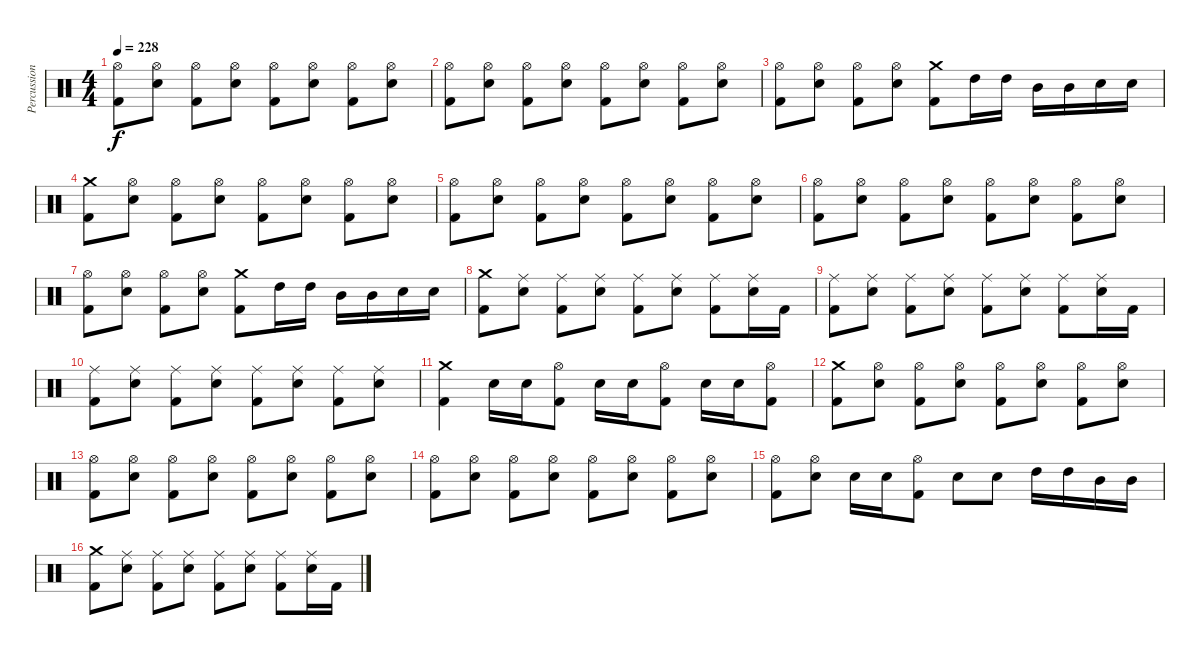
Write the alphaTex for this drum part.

\track ("Percussion" "Percussion") {instrument percussion}
\staff {score}
\articulation defaults
\ts (4 4)
\tempo 228
\clef neutral
\ks c
("Hi-Hat (open)" "Kick (hit) 2").8{dy f} ("Hi-Hat (open)" "Electric Snare (hit)").8 ("Hi-Hat (open)" "Kick (hit) 2").8 ("Hi-Hat (open)" "Electric Snare (hit)").8 ("Hi-Hat (open)" "Kick (hit) 2").8 ("Hi-Hat (open)" "Electric Snare (hit)").8 ("Hi-Hat (open)" "Kick (hit) 2").8 ("Hi-Hat (open)" "Electric Snare (hit)").8 |
("Hi-Hat (open)" "Kick (hit) 2").8 ("Hi-Hat (open)" "Electric Snare (hit)").8 ("Hi-Hat (open)" "Kick (hit) 2").8 ("Hi-Hat (open)" "Electric Snare (hit)").8 ("Hi-Hat (open)" "Kick (hit) 2").8 ("Hi-Hat (open)" "Electric Snare (hit)").8 ("Hi-Hat (open)" "Kick (hit) 2").8 ("Hi-Hat (open)" "Electric Snare (hit)").8 |
("Hi-Hat (open)" "Kick (hit) 2").8 ("Hi-Hat (open)" "Electric Snare (hit)").8 ("Hi-Hat (open)" "Kick (hit) 2").8 ("Hi-Hat (open)" "Electric Snare (hit)").8 ("Crash medium (hit)" "Kick (hit) 2").8 "High Tom (hit)".16 "High Tom (hit)".16 "Mid Tom (hit)".16 "Mid Tom (hit)".16 "Electric Snare (hit)".16 "Electric Snare (hit)".16 |
("Kick (hit) 2" "Crash medium (hit)").8 ("Hi-Hat (open)" "Electric Snare (hit)").8 ("Hi-Hat (open)" "Kick (hit) 2").8 ("Hi-Hat (open)" "Electric Snare (hit)").8 ("Hi-Hat (open)" "Kick (hit) 2").8 ("Hi-Hat (open)" "Electric Snare (hit)").8 ("Hi-Hat (open)" "Kick (hit) 2").8 ("Hi-Hat (open)" "Electric Snare (hit)").8 |
("Hi-Hat (open)" "Kick (hit) 2").8 ("Hi-Hat (open)" "Electric Snare (hit)").8 ("Hi-Hat (open)" "Kick (hit) 2").8 ("Hi-Hat (open)" "Electric Snare (hit)").8 ("Hi-Hat (open)" "Kick (hit) 2").8 ("Hi-Hat (open)" "Electric Snare (hit)").8 ("Hi-Hat (open)" "Kick (hit) 2").8 ("Hi-Hat (open)" "Electric Snare (hit)").8 |
("Hi-Hat (open)" "Kick (hit) 2").8 ("Hi-Hat (open)" "Electric Snare (hit)").8 ("Hi-Hat (open)" "Kick (hit) 2").8 ("Hi-Hat (open)" "Electric Snare (hit)").8 ("Hi-Hat (open)" "Kick (hit) 2").8 ("Hi-Hat (open)" "Electric Snare (hit)").8 ("Hi-Hat (open)" "Kick (hit) 2").8 ("Hi-Hat (open)" "Electric Snare (hit)").8 |
("Hi-Hat (open)" "Kick (hit) 2").8 ("Hi-Hat (open)" "Electric Snare (hit)").8 ("Hi-Hat (open)" "Kick (hit) 2").8 ("Hi-Hat (open)" "Electric Snare (hit)").8 ("Crash medium (hit)" "Kick (hit) 2").8 "High Tom (hit)".16 "High Tom (hit)".16 "Mid Tom (hit)".16 "Mid Tom (hit)".16 "Electric Snare (hit)".16 "Electric Snare (hit)".16 |
("Kick (hit) 2" "Crash medium (hit)").8 ("Ride (middle)" "Electric Snare (hit)").8 ("Ride (middle)" "Kick (hit) 2").8 ("Ride (middle)" "Electric Snare (hit)").8 ("Ride (middle)" "Kick (hit) 2").8 ("Ride (middle)" "Electric Snare (hit)").8 ("Ride (middle)" "Kick (hit) 2").8 ("Ride (middle)" "Electric Snare (hit)").16 "Kick (hit) 2".16 |
("Ride (middle)" "Kick (hit) 2").8 ("Ride (middle)" "Electric Snare (hit)").8 ("Ride (middle)" "Kick (hit) 2").8 ("Ride (middle)" "Electric Snare (hit)").8 ("Ride (middle)" "Kick (hit) 2").8 ("Ride (middle)" "Electric Snare (hit)").8 ("Ride (middle)" "Kick (hit) 2").8 ("Ride (middle)" "Electric Snare (hit)").16 "Kick (hit) 2".16 |
("Ride (middle)" "Kick (hit) 2").8 ("Ride (middle)" "Electric Snare (hit)").8 ("Ride (middle)" "Kick (hit) 2").8 ("Ride (middle)" "Electric Snare (hit)").8 ("Ride (middle)" "Kick (hit) 2").8 ("Ride (middle)" "Electric Snare (hit)").8 ("Ride (middle)" "Kick (hit) 2").8 ("Ride (middle)" "Electric Snare (hit)").8 |
("Crash medium (hit)" "Kick (hit) 2").4 "Electric Snare (hit)".16 "Electric Snare (hit)".16 ("Hi-Hat (open)" "Kick (hit) 2").8 "Electric Snare (hit)".16 "Electric Snare (hit)".16 ("Kick (hit) 2" "Hi-Hat (open)").8 "Electric Snare (hit)".16 "Electric Snare (hit)".16 ("Hi-Hat (open)" "Kick (hit) 2").8 |
("Kick (hit) 2" "Crash medium (hit)").8 ("Hi-Hat (open)" "Electric Snare (hit)").8 ("Hi-Hat (open)" "Kick (hit) 2").8 ("Hi-Hat (open)" "Electric Snare (hit)").8 ("Hi-Hat (open)" "Kick (hit) 2").8 ("Hi-Hat (open)" "Electric Snare (hit)").8 ("Hi-Hat (open)" "Kick (hit) 2").8 ("Hi-Hat (open)" "Electric Snare (hit)").8 |
("Hi-Hat (open)" "Kick (hit) 2").8 ("Hi-Hat (open)" "Electric Snare (hit)").8 ("Hi-Hat (open)" "Kick (hit) 2").8 ("Hi-Hat (open)" "Electric Snare (hit)").8 ("Hi-Hat (open)" "Kick (hit) 2").8 ("Hi-Hat (open)" "Electric Snare (hit)").8 ("Hi-Hat (open)" "Kick (hit) 2").8 ("Hi-Hat (open)" "Electric Snare (hit)").8 |
("Hi-Hat (open)" "Kick (hit) 2").8 ("Hi-Hat (open)" "Electric Snare (hit)").8 ("Hi-Hat (open)" "Kick (hit) 2").8 ("Hi-Hat (open)" "Electric Snare (hit)").8 ("Hi-Hat (open)" "Kick (hit) 2").8 ("Hi-Hat (open)" "Electric Snare (hit)").8 ("Hi-Hat (open)" "Kick (hit) 2").8 ("Hi-Hat (open)" "Electric Snare (hit)").8 |
("Hi-Hat (open)" "Kick (hit) 2").8 ("Hi-Hat (open)" "Electric Snare (hit)").8 "Electric Snare (hit)".16 "Electric Snare (hit)".16 ("Hi-Hat (open)" "Kick (hit) 2").8 "Electric Snare (hit)".8 "Electric Snare (hit)".8 "High Tom (hit)".16 "High Tom (hit)".16 "Mid Tom (hit)".16 "Mid Tom (hit)".16 |
("Kick (hit) 2" "Crash medium (hit)").8 ("Ride (middle)" "Electric Snare (hit)").8 ("Ride (middle)" "Kick (hit) 2").8 ("Ride (middle)" "Electric Snare (hit)").8 ("Ride (middle)" "Kick (hit) 2").8 ("Ride (middle)" "Electric Snare (hit)").8 ("Ride (middle)" "Kick (hit) 2").8 ("Ride (middle)" "Electric Snare (hit)").16 "Kick (hit) 2".16
